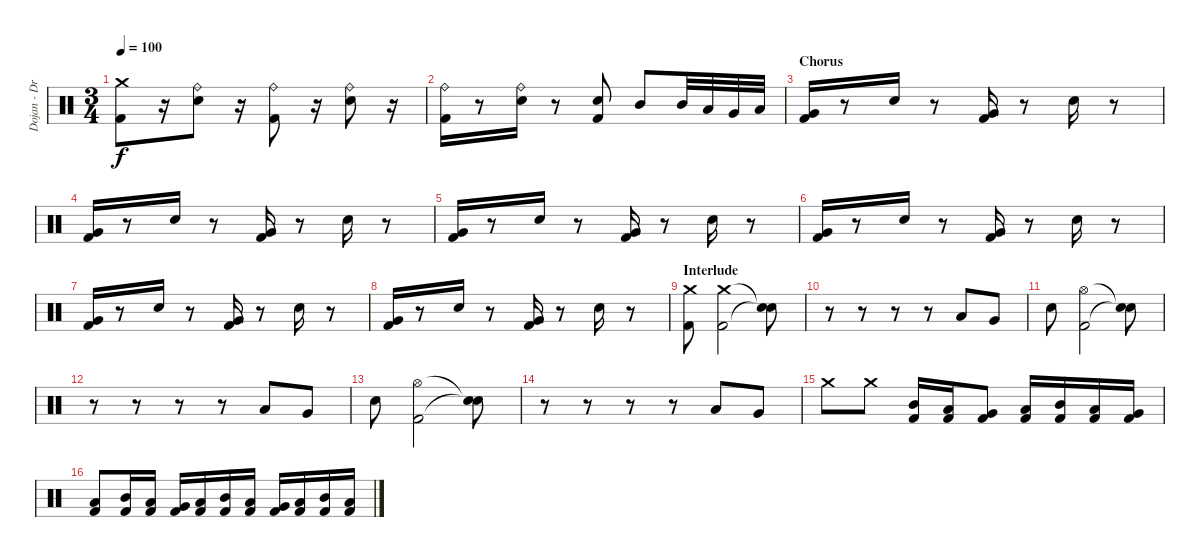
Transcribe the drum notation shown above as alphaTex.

\track ("Dojan - Drums" "Dojan - Dr") {instrument percussion}
\staff {score}
\articulation defaults
\ts (3 4)
\tempo 100
\clef neutral
\ks c
("Crash medium (hit)" "Kick (hit) 2").8{dy f} r.16 ("Ride (bell)" "Snare (hit) 2").8 r.16 ("Ride (bell)" "Kick (hit) 2").8 r.16 ("Ride (bell)" "Snare (hit) 2").8 r.16 |
("Ride (bell)" "Kick (hit) 2").16 r.8 ("Ride (bell)" "Snare (hit) 2").16 r.8 ("Snare (hit) 2" "Kick (hit) 2").8 "Mid Tom (hit)".8 "Mid Tom (hit)".32 "Low Tom (hit)".32 "Very Low Tom (hit)".32 "Low Floor Tom (hit)".32 |
\section ("" "Chorus")
("Very Low Tom (hit)" "Kick (hit) 2").16 r.8 "Snare (hit) 2".16 r.8 ("Very Low Tom (hit)" "Kick (hit) 2").16 r.8 "Snare (hit) 2".16 r.8 |
("Very Low Tom (hit)" "Kick (hit) 2").16 r.8 "Snare (hit) 2".16 r.8 ("Very Low Tom (hit)" "Kick (hit) 2").16 r.8 "Snare (hit) 2".16 r.8 |
("Very Low Tom (hit)" "Kick (hit) 2").16 r.8 "Snare (hit) 2".16 r.8 ("Very Low Tom (hit)" "Kick (hit) 2").16 r.8 "Snare (hit) 2".16 r.8 |
("Very Low Tom (hit)" "Kick (hit) 2").16 r.8 "Snare (hit) 2".16 r.8 ("Very Low Tom (hit)" "Kick (hit) 2").16 r.8 "Snare (hit) 2".16 r.8 |
("Very Low Tom (hit)" "Kick (hit) 2").16 r.8 "Snare (hit) 2".16 r.8 ("Very Low Tom (hit)" "Kick (hit) 2").16 r.8 "Snare (hit) 2".16 r.8 |
("Very Low Tom (hit)" "Kick (hit) 2").16 r.8 "Snare (hit) 2".16 r.8 ("Very Low Tom (hit)" "Kick (hit) 2").16 r.8 "Snare (hit) 2".16 r.8 |
\section ("" "Interlude")
("Crash medium (hit)" "Kick (hit) 2").8 ("Crash medium (hit)" "Kick (hit) 2").2 ("Snare (hit)"{t} "Snare (hit)"{t}).8 |
r.8 r.8 r.8 r.8 "Low Tom (hit)".8 "Very Low Tom (hit)".8 |
"Snare (hit) 2".8 ("Hi-Hat (open)" "Kick (hit) 2").2 ("Snare (hit)"{t} "Snare (hit)"{t}).8 |
r.8 r.8 r.8 r.8 "Low Tom (hit)".8 "Very Low Tom (hit)".8 |
"Snare (hit) 2".8 ("Hi-Hat (open)" "Kick (hit) 2").2 ("Snare (hit)"{t} "Snare (hit)"{t}).8 |
r.8 r.8 r.8 r.8 "Low Tom (hit)".8 "Very Low Tom (hit)".8 |
"Crash medium (hit)".8 "Crash medium (hit)".8 ("Mid Tom (hit)" "Kick (hit) 2").16 ("Low Tom (hit)" "Kick (hit) 2").16 ("Very Low Tom (hit)" "Kick (hit) 2").8 ("Low Floor Tom (hit)" "Kick (hit) 2").16 ("Mid Tom (hit)" "Kick (hit) 2").16 ("Low Tom (hit)" "Kick (hit) 2").16 ("Very Low Tom (hit)" "Kick (hit) 2").16 |
("Low Floor Tom (hit)" "Kick (hit) 2").8 ("Mid Tom (hit)" "Kick (hit) 2").16 ("Low Tom (hit)" "Kick (hit) 2").16 ("Very Low Tom (hit)" "Kick (hit) 2").16 ("Low Floor Tom (hit)" "Kick (hit) 2").16 ("Mid Tom (hit)" "Kick (hit) 2").16 ("Low Tom (hit)" "Kick (hit) 2").16 ("Very Low Tom (hit)" "Kick (hit) 2").16 ("Low Floor Tom (hit)" "Kick (hit) 2").16 ("Mid Tom (hit)" "Kick (hit) 2").16 ("Low Tom (hit)" "Kick (hit) 2").16
